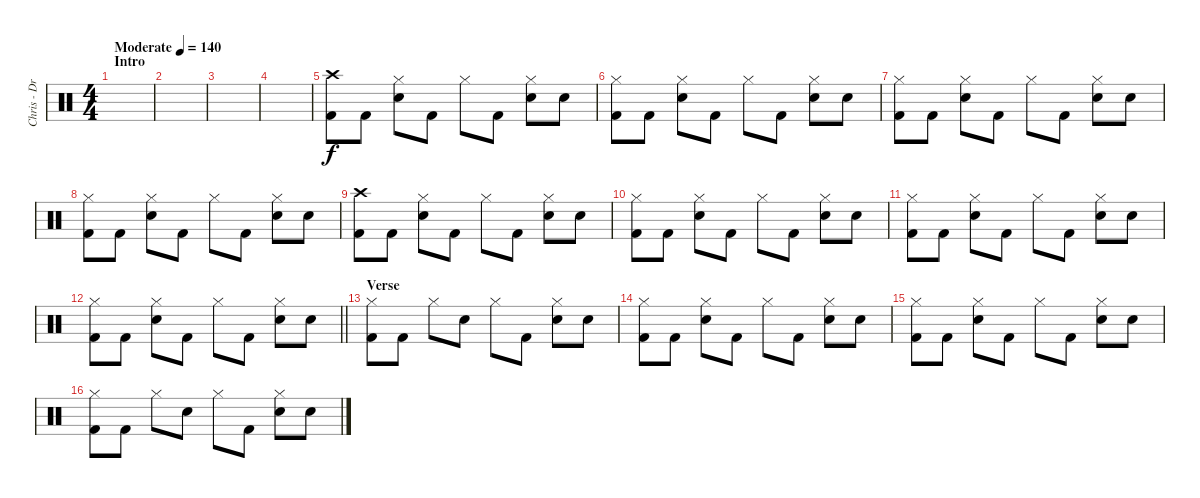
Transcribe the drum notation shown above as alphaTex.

\track ("Chris - Drums" "Chris - Dr") {instrument percussion}
\staff {score}
\articulation defaults
\ts (4 4)
\section ("" "Intro")
\tempo (140 "Moderate")
\clef neutral
\ks c
|
|
|
|
("Crash high (hit)" "Kick (hit) 2").8 "Kick (hit) 2".8 ("Hi-Hat (closed)" "Electric Snare (hit)").8 "Kick (hit) 2".8 "Hi-Hat (closed)".8 "Kick (hit) 2".8 ("Hi-Hat (closed)" "Electric Snare (hit)").8 "Electric Snare (hit)".8 |
("Hi-Hat (closed)" "Kick (hit) 2").8 "Kick (hit) 2".8 ("Hi-Hat (closed)" "Electric Snare (hit)").8 "Kick (hit) 2".8 "Hi-Hat (closed)".8 "Kick (hit) 2".8 ("Hi-Hat (closed)" "Electric Snare (hit)").8 "Electric Snare (hit)".8 |
("Hi-Hat (closed)" "Kick (hit) 2").8 "Kick (hit) 2".8 ("Hi-Hat (closed)" "Electric Snare (hit)").8 "Kick (hit) 2".8 "Hi-Hat (closed)".8 "Kick (hit) 2".8 ("Hi-Hat (closed)" "Electric Snare (hit)").8 "Electric Snare (hit)".8 |
("Hi-Hat (closed)" "Kick (hit) 2").8 "Kick (hit) 2".8 ("Hi-Hat (closed)" "Electric Snare (hit)").8 "Kick (hit) 2".8 "Hi-Hat (closed)".8 "Kick (hit) 2".8 ("Hi-Hat (closed)" "Electric Snare (hit)").8 "Electric Snare (hit)".8 |
("Crash high (hit)" "Kick (hit) 2").8 "Kick (hit) 2".8 ("Hi-Hat (closed)" "Electric Snare (hit)").8 "Kick (hit) 2".8 "Hi-Hat (closed)".8 "Kick (hit) 2".8 ("Hi-Hat (closed)" "Electric Snare (hit)").8 "Electric Snare (hit)".8 |
("Hi-Hat (closed)" "Kick (hit) 2").8 "Kick (hit) 2".8 ("Hi-Hat (closed)" "Electric Snare (hit)").8 "Kick (hit) 2".8 "Hi-Hat (closed)".8 "Kick (hit) 2".8 ("Hi-Hat (closed)" "Electric Snare (hit)").8 "Electric Snare (hit)".8 |
("Hi-Hat (closed)" "Kick (hit) 2").8 "Kick (hit) 2".8 ("Hi-Hat (closed)" "Electric Snare (hit)").8 "Kick (hit) 2".8 "Hi-Hat (closed)".8 "Kick (hit) 2".8 ("Hi-Hat (closed)" "Electric Snare (hit)").8 "Electric Snare (hit)".8 |
\barLineRight lightlight
("Hi-Hat (closed)" "Kick (hit) 2").8 "Kick (hit) 2".8 ("Hi-Hat (closed)" "Electric Snare (hit)").8 "Kick (hit) 2".8 "Hi-Hat (closed)".8 "Kick (hit) 2".8 ("Hi-Hat (closed)" "Electric Snare (hit)").8 "Electric Snare (hit)".8 |
\section ("" "Verse")
("Hi-Hat (closed)" "Kick (hit) 2").8 "Kick (hit) 2".8 "Hi-Hat (closed)".8 "Electric Snare (hit)".8 "Hi-Hat (closed)".8 "Kick (hit) 2".8 ("Hi-Hat (closed)" "Electric Snare (hit)").8 "Electric Snare (hit)".8 |
("Hi-Hat (closed)" "Kick (hit) 2").8 "Kick (hit) 2".8 ("Hi-Hat (closed)" "Electric Snare (hit)").8 "Kick (hit) 2".8 "Hi-Hat (closed)".8 "Kick (hit) 2".8 ("Hi-Hat (closed)" "Electric Snare (hit)").8 "Electric Snare (hit)".8 |
("Hi-Hat (closed)" "Kick (hit) 2").8 "Kick (hit) 2".8 ("Hi-Hat (closed)" "Electric Snare (hit)").8 "Kick (hit) 2".8 "Hi-Hat (closed)".8 "Kick (hit) 2".8 ("Hi-Hat (closed)" "Electric Snare (hit)").8 "Electric Snare (hit)".8 |
("Hi-Hat (closed)" "Kick (hit) 2").8 "Kick (hit) 2".8 "Hi-Hat (closed)".8 "Electric Snare (hit)".8 "Hi-Hat (closed)".8 "Kick (hit) 2".8 ("Hi-Hat (closed)" "Electric Snare (hit)").8 "Electric Snare (hit)".8
